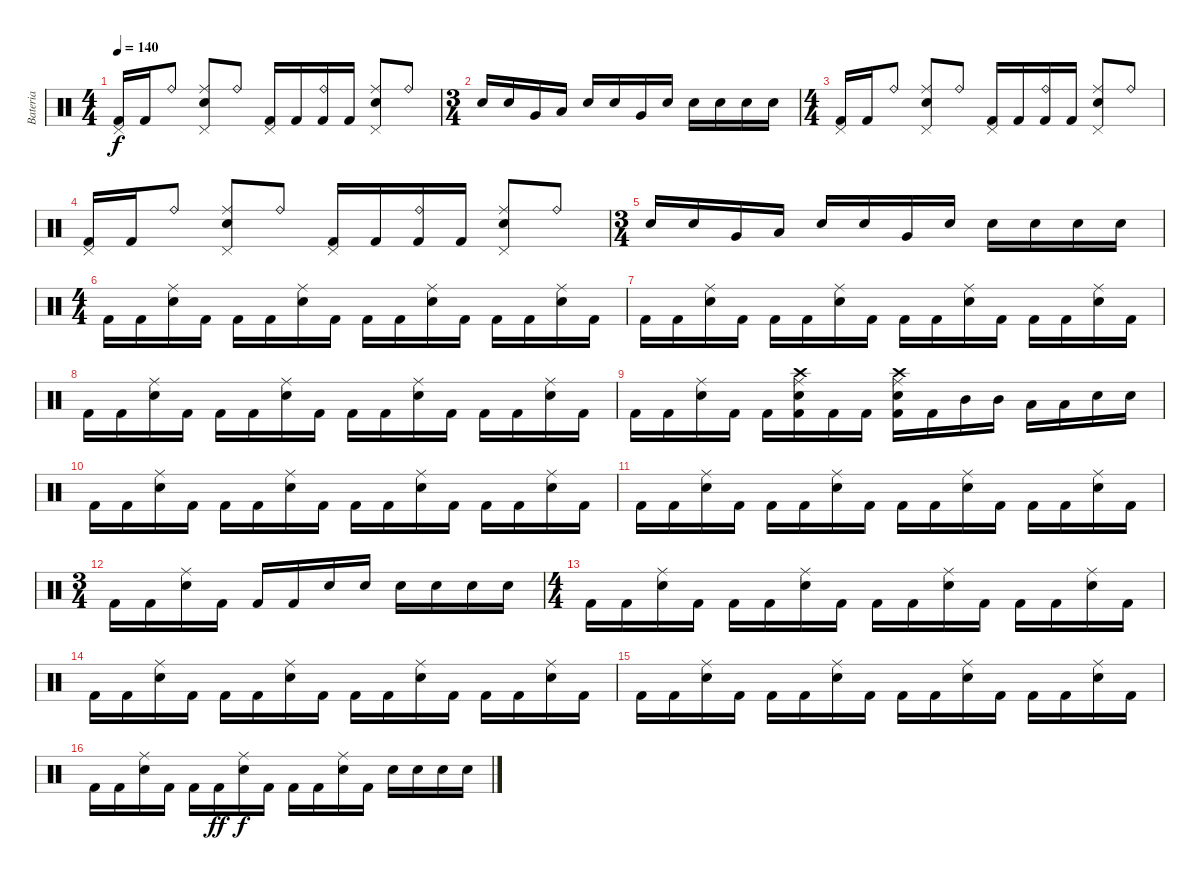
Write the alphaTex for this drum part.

\track ("Bateria" "Bateria") {instrument percussion}
\staff {score}
\articulation defaults
\ts (4 4)
\tempo 140
\clef neutral
\ks c
("Pedal Hi-Hat (hit)" "Kick (hit) 2").16{dy f} "Kick (hit) 2".16 "Ride (bell)".8 ("Pedal Hi-Hat (hit)" "Electric Snare (hit)" "Ride (middle)").8 "Ride (bell)".8 ("Pedal Hi-Hat (hit)" "Kick (hit) 2").16 "Kick (hit) 2".16 ("Ride (bell)" "Kick (hit) 2").16 "Kick (hit) 2".16 ("Pedal Hi-Hat (hit)" "Electric Snare (hit)" "Ride (middle)").8 "Ride (bell)".8 |
\ts (3 4)
"Electric Snare (hit)".16 "Electric Snare (hit)".16 "Very Low Tom (hit)".16 "Low Floor Tom (hit)".16 "Electric Snare (hit)".16 "Electric Snare (hit)".16 "Very Low Tom (hit)".16 "Electric Snare (hit)".16 "Electric Snare (hit)".16 "Electric Snare (hit)".16 "Electric Snare (hit)".16 "Electric Snare (hit)".16 |
\ts (4 4)
("Pedal Hi-Hat (hit)" "Kick (hit) 2").16 "Kick (hit) 2".16 "Ride (bell)".8 ("Pedal Hi-Hat (hit)" "Electric Snare (hit)" "Ride (middle)").8 "Ride (bell)".8 ("Pedal Hi-Hat (hit)" "Kick (hit) 2").16 "Kick (hit) 2".16 ("Ride (bell)" "Kick (hit) 2").16 "Kick (hit) 2".16 ("Pedal Hi-Hat (hit)" "Electric Snare (hit)" "Ride (middle)").8 "Ride (bell)".8 |
("Pedal Hi-Hat (hit)" "Kick (hit) 2").16 "Kick (hit) 2".16 "Ride (bell)".8 ("Pedal Hi-Hat (hit)" "Electric Snare (hit)" "Ride (middle)").8 "Ride (bell)".8 ("Pedal Hi-Hat (hit)" "Kick (hit) 2").16 "Kick (hit) 2".16 ("Ride (bell)" "Kick (hit) 2").16 "Kick (hit) 2".16 ("Pedal Hi-Hat (hit)" "Electric Snare (hit)" "Ride (middle)").8 "Ride (bell)".8 |
\ts (3 4)
"Electric Snare (hit)".16 "Electric Snare (hit)".16 "Very Low Tom (hit)".16 "Low Floor Tom (hit)".16 "Electric Snare (hit)".16 "Electric Snare (hit)".16 "Very Low Tom (hit)".16 "Electric Snare (hit)".16 "Electric Snare (hit)".16 "Electric Snare (hit)".16 "Electric Snare (hit)".16 "Electric Snare (hit)".16 |
\ts (4 4)
"Kick (hit) 2".16 "Kick (hit) 2".16 ("Electric Snare (hit)" "Ride (middle)").16 "Kick (hit) 2".16 "Kick (hit) 2".16 "Kick (hit) 2".16 ("Electric Snare (hit)" "Ride (middle)").16 "Kick (hit) 2".16 "Kick (hit) 2".16 "Kick (hit) 2".16 ("Electric Snare (hit)" "Ride (middle)").16 "Kick (hit) 2".16 "Kick (hit) 2".16 "Kick (hit) 2".16 ("Electric Snare (hit)" "Ride (middle)").16 "Kick (hit) 2".16 |
"Kick (hit) 2".16 "Kick (hit) 2".16 ("Electric Snare (hit)" "Ride (middle)").16 "Kick (hit) 2".16 "Kick (hit) 2".16 "Kick (hit) 2".16 ("Electric Snare (hit)" "Ride (middle)").16 "Kick (hit) 2".16 "Kick (hit) 2".16 "Kick (hit) 2".16 ("Electric Snare (hit)" "Ride (middle)").16 "Kick (hit) 2".16 "Kick (hit) 2".16 "Kick (hit) 2".16 ("Electric Snare (hit)" "Ride (middle)").16 "Kick (hit) 2".16 |
"Kick (hit) 2".16 "Kick (hit) 2".16 ("Electric Snare (hit)" "Ride (middle)").16 "Kick (hit) 2".16 "Kick (hit) 2".16 "Kick (hit) 2".16 ("Electric Snare (hit)" "Ride (middle)").16 "Kick (hit) 2".16 "Kick (hit) 2".16 "Kick (hit) 2".16 ("Electric Snare (hit)" "Ride (middle)").16 "Kick (hit) 2".16 "Kick (hit) 2".16 "Kick (hit) 2".16 ("Electric Snare (hit)" "Ride (middle)").16 "Kick (hit) 2".16 |
"Kick (hit) 2".16 "Kick (hit) 2".16 ("Electric Snare (hit)" "Ride (middle)").16 "Kick (hit) 2".16 "Kick (hit) 2".16 ("Kick (hit) 2" "Electric Snare (hit)" "Ride (middle)" "Crash high (hit)").16 "Kick (hit) 2".16 "Kick (hit) 2".16 ("Kick (hit) 2" "Electric Snare (hit)" "Ride (middle)" "Crash high (hit)").16 "Kick (hit) 2".16 "Mid Tom (hit)".16 "Mid Tom (hit)".16 "Low Tom (hit)".16 "Low Tom (hit)".16 "Electric Snare (hit)".16 "Electric Snare (hit)".16 |
"Kick (hit) 2".16 "Kick (hit) 2".16 ("Electric Snare (hit)" "Ride (middle)").16 "Kick (hit) 2".16 "Kick (hit) 2".16 "Kick (hit) 2".16 ("Electric Snare (hit)" "Ride (middle)").16 "Kick (hit) 2".16 "Kick (hit) 2".16 "Kick (hit) 2".16 ("Electric Snare (hit)" "Ride (middle)").16 "Kick (hit) 2".16 "Kick (hit) 2".16 "Kick (hit) 2".16 ("Electric Snare (hit)" "Ride (middle)").16 "Kick (hit) 2".16 |
"Kick (hit) 2".16 "Kick (hit) 2".16 ("Electric Snare (hit)" "Ride (middle)").16 "Kick (hit) 2".16 "Kick (hit) 2".16 "Kick (hit) 2".16 ("Electric Snare (hit)" "Ride (middle)").16 "Kick (hit) 2".16 "Kick (hit) 2".16 "Kick (hit) 2".16 ("Electric Snare (hit)" "Ride (middle)").16 "Kick (hit) 2".16 "Kick (hit) 2".16 "Kick (hit) 2".16 ("Electric Snare (hit)" "Ride (middle)").16 "Kick (hit) 2".16 |
\ts (3 4)
"Kick (hit) 2".16 "Kick (hit) 2".16 ("Electric Snare (hit)" "Ride (middle)").16 "Kick (hit) 2".16 "Kick (hit) 2".16 "Kick (hit) 2".16 "Electric Snare (hit)".16 "Electric Snare (hit)".16 "Electric Snare (hit)".16 "Electric Snare (hit)".16 "Electric Snare (hit)".16 "Electric Snare (hit)".16 |
\ts (4 4)
"Kick (hit) 2".16 "Kick (hit) 2".16 ("Electric Snare (hit)" "Ride (middle)").16 "Kick (hit) 2".16 "Kick (hit) 2".16 "Kick (hit) 2".16 ("Electric Snare (hit)" "Ride (middle)").16 "Kick (hit) 2".16 "Kick (hit) 2".16 "Kick (hit) 2".16 ("Electric Snare (hit)" "Ride (middle)").16 "Kick (hit) 2".16 "Kick (hit) 2".16 "Kick (hit) 2".16 ("Electric Snare (hit)" "Ride (middle)").16 "Kick (hit) 2".16 |
"Kick (hit) 2".16 "Kick (hit) 2".16 ("Electric Snare (hit)" "Ride (middle)").16 "Kick (hit) 2".16 "Kick (hit) 2".16 "Kick (hit) 2".16 ("Electric Snare (hit)" "Ride (middle)").16 "Kick (hit) 2".16 "Kick (hit) 2".16 "Kick (hit) 2".16 ("Electric Snare (hit)" "Ride (middle)").16 "Kick (hit) 2".16 "Kick (hit) 2".16 "Kick (hit) 2".16 ("Electric Snare (hit)" "Ride (middle)").16 "Kick (hit) 2".16 |
"Kick (hit) 2".16 "Kick (hit) 2".16 ("Electric Snare (hit)" "Ride (middle)").16 "Kick (hit) 2".16 "Kick (hit) 2".16 "Kick (hit) 2".16 ("Electric Snare (hit)" "Ride (middle)").16 "Kick (hit) 2".16 "Kick (hit) 2".16 "Kick (hit) 2".16 ("Electric Snare (hit)" "Ride (middle)").16 "Kick (hit) 2".16 "Kick (hit) 2".16 "Kick (hit) 2".16 ("Electric Snare (hit)" "Ride (middle)").16 "Kick (hit) 2".16 |
"Kick (hit) 2".16 "Kick (hit) 2".16 ("Electric Snare (hit)" "Ride (middle)").16 "Kick (hit) 2".16 "Kick (hit) 2".16 "Kick (hit) 2".16{dy ff} ("Electric Snare (hit)" "Ride (middle)").16{dy f} "Kick (hit) 2".16 "Kick (hit) 2".16 "Kick (hit) 2".16 ("Electric Snare (hit)" "Ride (middle)").16 "Kick (hit) 2".16 "Electric Snare (hit)".16 "Electric Snare (hit)".16 "Electric Snare (hit)".16 "Electric Snare (hit)".16
